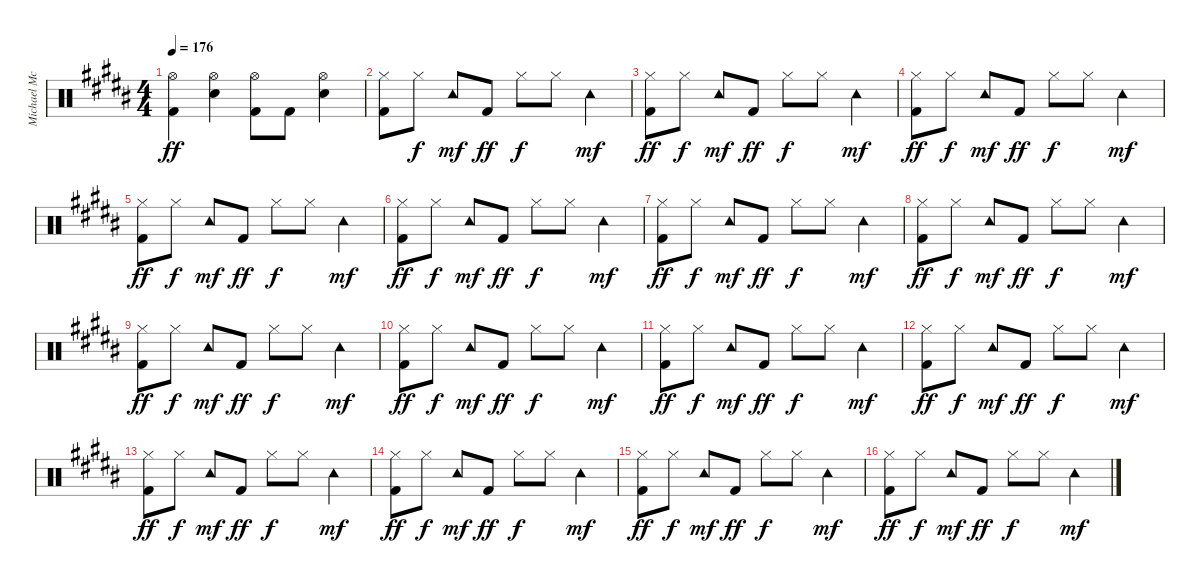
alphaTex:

\track ("Michael McDermott - Drums" "Michael Mc") {instrument percussion}
\staff {score}
\articulation defaults
\ts (4 4)
\tempo 176
\clef neutral
\ks b
("Hi-Hat (open)" "Kick (hit) 2").4{dy ff} ("Snare (hit) 2" "Hi-Hat (open)").4 ("Hi-Hat (open)" "Kick (hit) 2").8 "Kick (hit) 2".8 ("Snare (hit) 2" "Hi-Hat (open)").4 |
("Kick (hit) 2" "Hi-Hat (closed)").8 "Hi-Hat (closed)".8{dy f} "Tambourine (hit)".8{dy mf} "Kick (hit) 2".8{dy ff} "Hi-Hat (closed)".8{dy f} "Hi-Hat (closed)".8 "Tambourine (hit)".4{dy mf} |
("Kick (hit) 2" "Hi-Hat (closed)").8{dy ff} "Hi-Hat (closed)".8{dy f} "Tambourine (hit)".8{dy mf} "Kick (hit) 2".8{dy ff} "Hi-Hat (closed)".8{dy f} "Hi-Hat (closed)".8 "Tambourine (hit)".4{dy mf} |
("Kick (hit) 2" "Hi-Hat (closed)").8{dy ff} "Hi-Hat (closed)".8{dy f} "Tambourine (hit)".8{dy mf} "Kick (hit) 2".8{dy ff} "Hi-Hat (closed)".8{dy f} "Hi-Hat (closed)".8 "Tambourine (hit)".4{dy mf} |
("Kick (hit) 2" "Hi-Hat (closed)").8{dy ff} "Hi-Hat (closed)".8{dy f} "Tambourine (hit)".8{dy mf} "Kick (hit) 2".8{dy ff} "Hi-Hat (closed)".8{dy f} "Hi-Hat (closed)".8 "Tambourine (hit)".4{dy mf} |
("Kick (hit) 2" "Hi-Hat (closed)").8{dy ff} "Hi-Hat (closed)".8{dy f} "Tambourine (hit)".8{dy mf} "Kick (hit) 2".8{dy ff} "Hi-Hat (closed)".8{dy f} "Hi-Hat (closed)".8 "Tambourine (hit)".4{dy mf} |
("Kick (hit) 2" "Hi-Hat (closed)").8{dy ff} "Hi-Hat (closed)".8{dy f} "Tambourine (hit)".8{dy mf} "Kick (hit) 2".8{dy ff} "Hi-Hat (closed)".8{dy f} "Hi-Hat (closed)".8 "Tambourine (hit)".4{dy mf} |
("Kick (hit) 2" "Hi-Hat (closed)").8{dy ff} "Hi-Hat (closed)".8{dy f} "Tambourine (hit)".8{dy mf} "Kick (hit) 2".8{dy ff} "Hi-Hat (closed)".8{dy f} "Hi-Hat (closed)".8 "Tambourine (hit)".4{dy mf} |
("Kick (hit) 2" "Hi-Hat (closed)").8{dy ff} "Hi-Hat (closed)".8{dy f} "Tambourine (hit)".8{dy mf} "Kick (hit) 2".8{dy ff} "Hi-Hat (closed)".8{dy f} "Hi-Hat (closed)".8 "Tambourine (hit)".4{dy mf} |
("Kick (hit) 2" "Hi-Hat (closed)").8{dy ff} "Hi-Hat (closed)".8{dy f} "Tambourine (hit)".8{dy mf} "Kick (hit) 2".8{dy ff} "Hi-Hat (closed)".8{dy f} "Hi-Hat (closed)".8 "Tambourine (hit)".4{dy mf} |
("Kick (hit) 2" "Hi-Hat (closed)").8{dy ff} "Hi-Hat (closed)".8{dy f} "Tambourine (hit)".8{dy mf} "Kick (hit) 2".8{dy ff} "Hi-Hat (closed)".8{dy f} "Hi-Hat (closed)".8 "Tambourine (hit)".4{dy mf} |
("Kick (hit) 2" "Hi-Hat (closed)").8{dy ff} "Hi-Hat (closed)".8{dy f} "Tambourine (hit)".8{dy mf} "Kick (hit) 2".8{dy ff} "Hi-Hat (closed)".8{dy f} "Hi-Hat (closed)".8 "Tambourine (hit)".4{dy mf} |
("Kick (hit) 2" "Hi-Hat (closed)").8{dy ff} "Hi-Hat (closed)".8{dy f} "Tambourine (hit)".8{dy mf} "Kick (hit) 2".8{dy ff} "Hi-Hat (closed)".8{dy f} "Hi-Hat (closed)".8 "Tambourine (hit)".4{dy mf} |
("Kick (hit) 2" "Hi-Hat (closed)").8{dy ff} "Hi-Hat (closed)".8{dy f} "Tambourine (hit)".8{dy mf} "Kick (hit) 2".8{dy ff} "Hi-Hat (closed)".8{dy f} "Hi-Hat (closed)".8 "Tambourine (hit)".4{dy mf} |
("Kick (hit) 2" "Hi-Hat (closed)").8{dy ff} "Hi-Hat (closed)".8{dy f} "Tambourine (hit)".8{dy mf} "Kick (hit) 2".8{dy ff} "Hi-Hat (closed)".8{dy f} "Hi-Hat (closed)".8 "Tambourine (hit)".4{dy mf} |
("Kick (hit) 2" "Hi-Hat (closed)").8{dy ff} "Hi-Hat (closed)".8{dy f} "Tambourine (hit)".8{dy mf} "Kick (hit) 2".8{dy ff} "Hi-Hat (closed)".8{dy f} "Hi-Hat (closed)".8 "Tambourine (hit)".4{dy mf}
